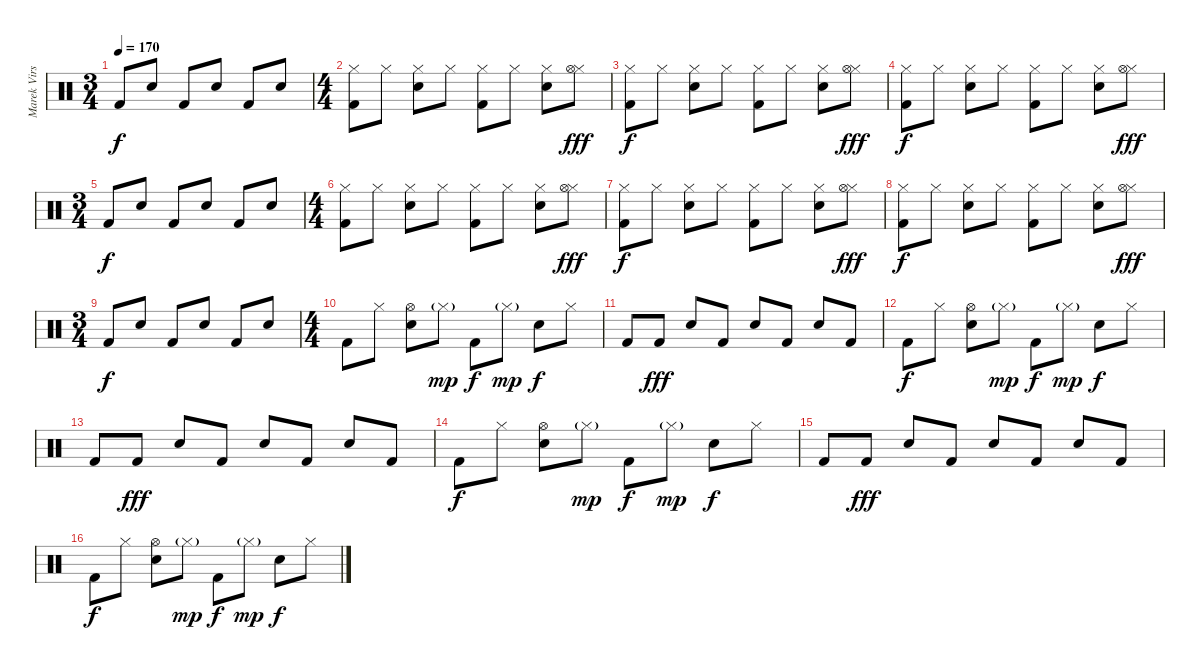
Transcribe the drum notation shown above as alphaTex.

\track ("Marek Virsik" "Marek Virs") {instrument percussion}
\staff {score}
\articulation defaults
\ts (3 4)
\tempo 170
\clef neutral
\ks c "Kick (hit) 2".8{dy f} "Electric Snare (hit)".8 "Kick (hit) 2".8 "Electric Snare (hit)".8 "Kick (hit) 2".8 "Electric Snare (hit)".8
|
\ts (4 4)
("Hi-Hat (closed)" "Kick (hit) 2").8 "Hi-Hat (closed)".8 ("Hi-Hat (closed)" "Electric Snare (hit)").8 "Hi-Hat (closed)".8 ("Hi-Hat (closed)" "Kick (hit) 2").8 "Hi-Hat (closed)".8 ("Hi-Hat (closed)" "Electric Snare (hit)").8 ("Hi-Hat (closed)" "Hi-Hat (open)").8{dy fff} |
("Hi-Hat (closed)" "Kick (hit) 2").8{dy f} "Hi-Hat (closed)".8 ("Hi-Hat (closed)" "Electric Snare (hit)").8 "Hi-Hat (closed)".8 ("Hi-Hat (closed)" "Kick (hit) 2").8 "Hi-Hat (closed)".8 ("Hi-Hat (closed)" "Electric Snare (hit)").8 ("Hi-Hat (closed)" "Hi-Hat (open)").8{dy fff} |
("Hi-Hat (closed)" "Kick (hit) 2").8{dy f} "Hi-Hat (closed)".8 ("Hi-Hat (closed)" "Electric Snare (hit)").8 "Hi-Hat (closed)".8 ("Hi-Hat (closed)" "Kick (hit) 2").8 "Hi-Hat (closed)".8 ("Hi-Hat (closed)" "Electric Snare (hit)").8 ("Hi-Hat (closed)" "Hi-Hat (open)").8{dy fff} |
\ts (3 4)
"Kick (hit) 2".8{dy f} "Electric Snare (hit)".8 "Kick (hit) 2".8 "Electric Snare (hit)".8 "Kick (hit) 2".8 "Electric Snare (hit)".8 |
\ts (4 4)
("Hi-Hat (closed)" "Kick (hit) 2").8 "Hi-Hat (closed)".8 ("Hi-Hat (closed)" "Electric Snare (hit)").8 "Hi-Hat (closed)".8 ("Hi-Hat (closed)" "Kick (hit) 2").8 "Hi-Hat (closed)".8 ("Hi-Hat (closed)" "Electric Snare (hit)").8 ("Hi-Hat (closed)" "Hi-Hat (open)").8{dy fff} |
("Hi-Hat (closed)" "Kick (hit) 2").8{dy f} "Hi-Hat (closed)".8 ("Hi-Hat (closed)" "Electric Snare (hit)").8 "Hi-Hat (closed)".8 ("Hi-Hat (closed)" "Kick (hit) 2").8 "Hi-Hat (closed)".8 ("Hi-Hat (closed)" "Electric Snare (hit)").8 ("Hi-Hat (closed)" "Hi-Hat (open)").8{dy fff} |
("Hi-Hat (closed)" "Kick (hit) 2").8{dy f} "Hi-Hat (closed)".8 ("Hi-Hat (closed)" "Electric Snare (hit)").8 "Hi-Hat (closed)".8 ("Hi-Hat (closed)" "Kick (hit) 2").8 "Hi-Hat (closed)".8 ("Hi-Hat (closed)" "Electric Snare (hit)").8 ("Hi-Hat (closed)" "Hi-Hat (open)").8{dy fff} |
\ts (3 4)
"Kick (hit) 2".8{dy f} "Electric Snare (hit)".8 "Kick (hit) 2".8 "Electric Snare (hit)".8 "Kick (hit) 2".8 "Electric Snare (hit)".8 |
\ts (4 4)
"Kick (hit) 2".8 "Hi-Hat (closed)".8 ("Hi-Hat (open)" "Electric Snare (hit)").8 "Hi-Hat (closed)"{g}.8{dy mp} "Kick (hit) 2".8{dy f} "Hi-Hat (closed)"{g}.8{dy mp} "Electric Snare (hit)".8{dy f} "Hi-Hat (closed)".8 |
"Kick (hit) 2".8 "Kick (hit) 2".8{dy fff} "Electric Snare (hit)".8 "Kick (hit) 2".8 "Electric Snare (hit)".8 "Kick (hit) 2".8 "Electric Snare (hit)".8 "Kick (hit) 2".8 |
"Kick (hit) 2".8{dy f} "Hi-Hat (closed)".8 ("Hi-Hat (open)" "Electric Snare (hit)").8 "Hi-Hat (closed)"{g}.8{dy mp} "Kick (hit) 2".8{dy f} "Hi-Hat (closed)"{g}.8{dy mp} "Electric Snare (hit)".8{dy f} "Hi-Hat (closed)".8 |
"Kick (hit) 2".8 "Kick (hit) 2".8{dy fff} "Electric Snare (hit)".8 "Kick (hit) 2".8 "Electric Snare (hit)".8 "Kick (hit) 2".8 "Electric Snare (hit)".8 "Kick (hit) 2".8 |
"Kick (hit) 2".8{dy f} "Hi-Hat (closed)".8 ("Hi-Hat (open)" "Electric Snare (hit)").8 "Hi-Hat (closed)"{g}.8{dy mp} "Kick (hit) 2".8{dy f} "Hi-Hat (closed)"{g}.8{dy mp} "Electric Snare (hit)".8{dy f} "Hi-Hat (closed)".8 |
"Kick (hit) 2".8 "Kick (hit) 2".8{dy fff} "Electric Snare (hit)".8 "Kick (hit) 2".8 "Electric Snare (hit)".8 "Kick (hit) 2".8 "Electric Snare (hit)".8 "Kick (hit) 2".8 |
"Kick (hit) 2".8{dy f} "Hi-Hat (closed)".8 ("Hi-Hat (open)" "Electric Snare (hit)").8 "Hi-Hat (closed)"{g}.8{dy mp} "Kick (hit) 2".8{dy f} "Hi-Hat (closed)"{g}.8{dy mp} "Electric Snare (hit)".8{dy f} "Hi-Hat (closed)".8
